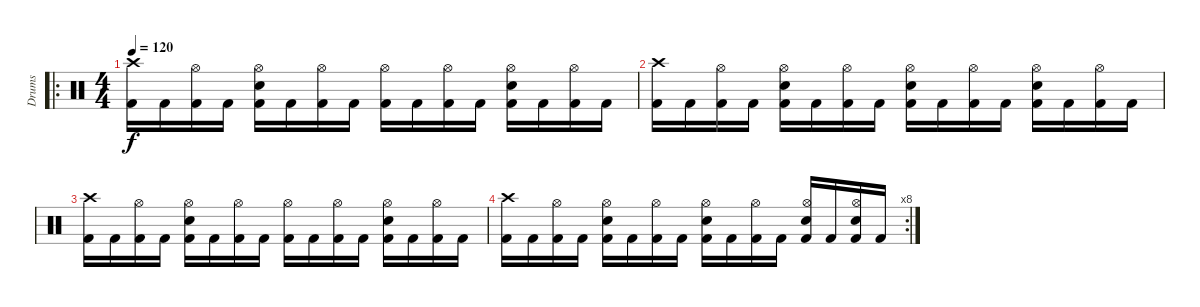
\track ("Drums" "Drums") {instrument percussion}
\staff {score}
\articulation defaults
\ro
\ts (4 4)
\tempo 120
\clef neutral
\ks c
("Crash high (hit)" "Kick (hit) 2").16{dy f} "Kick (hit) 2".16 ("Hi-Hat (open)" "Kick (hit) 2").16 "Kick (hit) 2".16 ("Hi-Hat (open)" "Snare (hit) 2" "Kick (hit) 2").16 "Kick (hit) 2".16 ("Hi-Hat (open)" "Kick (hit) 2").16 "Kick (hit) 2".16 ("Hi-Hat (open)" "Kick (hit) 2").16 "Kick (hit) 2".16 ("Hi-Hat (open)" "Kick (hit) 2").16 "Kick (hit) 2".16 ("Hi-Hat (open)" "Snare (hit) 2" "Kick (hit) 2").16 "Kick (hit) 2".16 ("Hi-Hat (open)" "Kick (hit) 2").16 "Kick (hit) 2".16 |
("Crash high (hit)" "Kick (hit) 2").16 "Kick (hit) 2".16 ("Hi-Hat (open)" "Kick (hit) 2").16 "Kick (hit) 2".16 ("Hi-Hat (open)" "Snare (hit) 2" "Kick (hit) 2").16 "Kick (hit) 2".16 ("Hi-Hat (open)" "Kick (hit) 2").16 "Kick (hit) 2".16 ("Hi-Hat (open)" "Snare (hit) 2" "Kick (hit) 2").16 "Kick (hit) 2".16 ("Hi-Hat (open)" "Kick (hit) 2").16 "Kick (hit) 2".16 ("Hi-Hat (open)" "Snare (hit) 2" "Kick (hit) 2").16 "Kick (hit) 2".16 ("Hi-Hat (open)" "Kick (hit) 2").16 "Kick (hit) 2".16 |
("Crash high (hit)" "Kick (hit) 2").16 "Kick (hit) 2".16 ("Hi-Hat (open)" "Kick (hit) 2").16 "Kick (hit) 2".16 ("Hi-Hat (open)" "Snare (hit) 2" "Kick (hit) 2").16 "Kick (hit) 2".16 ("Hi-Hat (open)" "Kick (hit) 2").16 "Kick (hit) 2".16 ("Hi-Hat (open)" "Kick (hit) 2").16 "Kick (hit) 2".16 ("Hi-Hat (open)" "Kick (hit) 2").16 "Kick (hit) 2".16 ("Hi-Hat (open)" "Snare (hit) 2" "Kick (hit) 2").16 "Kick (hit) 2".16 ("Hi-Hat (open)" "Kick (hit) 2").16 "Kick (hit) 2".16 |
\rc 8
("Crash high (hit)" "Kick (hit) 2").16 "Kick (hit) 2".16 ("Hi-Hat (open)" "Kick (hit) 2").16 "Kick (hit) 2".16 ("Hi-Hat (open)" "Snare (hit) 2" "Kick (hit) 2").16 "Kick (hit) 2".16 ("Hi-Hat (open)" "Kick (hit) 2").16 "Kick (hit) 2".16 ("Hi-Hat (open)" "Snare (hit) 2" "Kick (hit) 2").16 "Kick (hit) 2".16 ("Hi-Hat (open)" "Kick (hit) 2").16 "Kick (hit) 2".16 ("Hi-Hat (open)" "Snare (hit) 2" "Kick (hit) 2").16 "Kick (hit) 2".16 ("Hi-Hat (open)" "Snare (hit) 2" "Kick (hit) 2").16 "Kick (hit) 2".16
